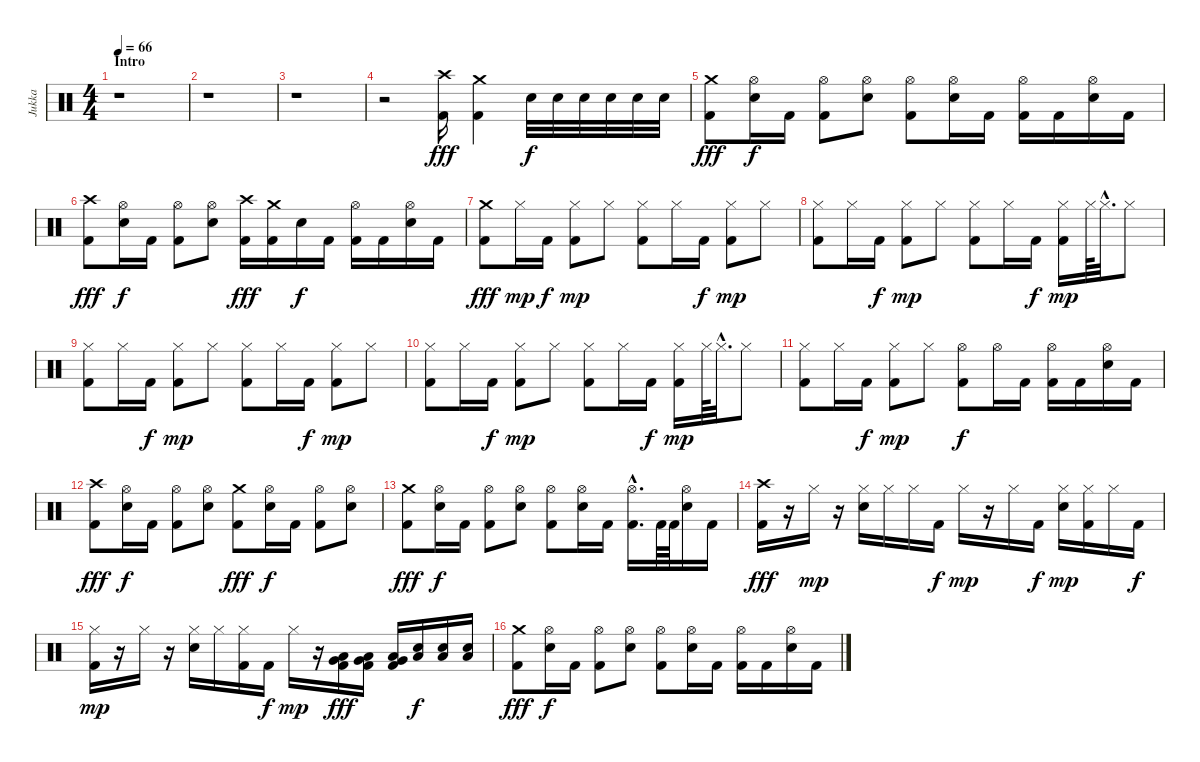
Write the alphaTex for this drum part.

\track ("Jukka" "Jukka") {instrument percussion}
\staff {score}
\articulation defaults
\ts (4 4)
\section ("" "Intro")
\tempo 66
\clef neutral
\ks c
r.1{dy fff} |
r.1 |
r.1 |
r.2 ("Kick (hit) 2" "Crash high (hit)").16 ("Kick (hit) 2" "Crash medium (hit)").4 "Electric Snare (hit)".32{dy f} "Electric Snare (hit)".32 "Electric Snare (hit)".32 "Electric Snare (hit)".32 "Electric Snare (hit)".32 "Electric Snare (hit)".32 |
("Kick (hit) 2" "Crash medium (hit)").8{dy fff} ("Electric Snare (hit)" "Hi-Hat (open)").16{dy f} "Kick (hit) 2".16 ("Kick (hit) 2" "Hi-Hat (open)").8 ("Electric Snare (hit)" "Hi-Hat (open)").8 ("Kick (hit) 2" "Hi-Hat (open)").8 ("Electric Snare (hit)" "Hi-Hat (open)").16 "Kick (hit) 2".16 ("Kick (hit) 2" "Hi-Hat (open)").16 "Kick (hit) 2".16 ("Electric Snare (hit)" "Hi-Hat (open)").16 "Kick (hit) 2".16 |
("Kick (hit) 2" "Crash high (hit)").8{dy fff} ("Electric Snare (hit)" "Hi-Hat (open)").16{dy f} "Kick (hit) 2".16 ("Kick (hit) 2" "Hi-Hat (open)").8 ("Electric Snare (hit)" "Hi-Hat (open)").8 ("Kick (hit) 2" "Crash high (hit)").16{dy fff} ("Kick (hit) 2" "Crash medium (hit)").16 "Electric Snare (hit)".16{dy f} "Kick (hit) 2".16 ("Kick (hit) 2" "Hi-Hat (open)").16 "Kick (hit) 2".16 ("Electric Snare (hit)" "Hi-Hat (open)").16 "Kick (hit) 2".16 |
("Kick (hit) 2" "Crash medium (hit)").8{dy fff} "Hi-Hat (closed)".16{dy mp} "Kick (hit) 2".16{dy f} ("Kick (hit) 2" "Hi-Hat (closed)").8{dy mp} "Hi-Hat (closed)".8 ("Kick (hit) 2" "Hi-Hat (closed)").8 "Hi-Hat (closed)".16 "Kick (hit) 2".16{dy f} ("Kick (hit) 2" "Hi-Hat (closed)").8{dy mp} "Hi-Hat (closed)".8 |
("Kick (hit) 2" "Hi-Hat (closed)").8 "Hi-Hat (closed)".16 "Kick (hit) 2".16{dy f} ("Kick (hit) 2" "Hi-Hat (closed)").8{dy mp} "Hi-Hat (closed)".8 ("Kick (hit) 2" "Hi-Hat (closed)").8 "Hi-Hat (closed)".16 "Kick (hit) 2".16{dy f} ("Kick (hit) 2" "Hi-Hat (closed)").16{dy mp} "Hi-Hat (closed)".64 "Hi-Hat (closed)"{hac}.32{d} "Hi-Hat (closed)".8 |
("Kick (hit) 2" "Hi-Hat (closed)").8 "Hi-Hat (closed)".16 "Kick (hit) 2".16{dy f} ("Kick (hit) 2" "Hi-Hat (closed)").8{dy mp} "Hi-Hat (closed)".8 ("Kick (hit) 2" "Hi-Hat (closed)").8 "Hi-Hat (closed)".16 "Kick (hit) 2".16{dy f} ("Kick (hit) 2" "Hi-Hat (closed)").8{dy mp} "Hi-Hat (closed)".8 |
("Kick (hit) 2" "Hi-Hat (closed)").8 "Hi-Hat (closed)".16 "Kick (hit) 2".16{dy f} ("Kick (hit) 2" "Hi-Hat (closed)").8{dy mp} "Hi-Hat (closed)".8 ("Kick (hit) 2" "Hi-Hat (closed)").8 "Hi-Hat (closed)".16 "Kick (hit) 2".16{dy f} ("Kick (hit) 2" "Hi-Hat (closed)").16{dy mp} "Hi-Hat (closed)".64 "Hi-Hat (closed)"{hac}.32{d} "Hi-Hat (closed)".8 |
("Kick (hit) 2" "Hi-Hat (closed)").8 "Hi-Hat (closed)".16 "Kick (hit) 2".16{dy f} ("Kick (hit) 2" "Hi-Hat (closed)").8{dy mp} "Hi-Hat (closed)".8 ("Kick (hit) 2" "Hi-Hat (open)").8{dy f} "Hi-Hat (open)".16 "Kick (hit) 2".16 ("Kick (hit) 2" "Hi-Hat (open)").16 "Kick (hit) 2".16 ("Electric Snare (hit)" "Hi-Hat (open)").16 "Kick (hit) 2".16 |
("Kick (hit) 2" "Crash high (hit)").8{dy fff} ("Electric Snare (hit)" "Hi-Hat (open)").16{dy f} "Kick (hit) 2".16 ("Kick (hit) 2" "Hi-Hat (open)").8 ("Electric Snare (hit)" "Hi-Hat (open)").8 ("Kick (hit) 2" "Crash medium (hit)").8{dy fff} ("Electric Snare (hit)" "Hi-Hat (open)").16{dy f} "Kick (hit) 2".16 ("Kick (hit) 2" "Hi-Hat (open)").8 ("Electric Snare (hit)" "Hi-Hat (open)").8 |
("Kick (hit) 2" "Crash medium (hit)").8{dy fff} ("Electric Snare (hit)" "Hi-Hat (open)").16{dy f} "Kick (hit) 2".16 ("Kick (hit) 2" "Hi-Hat (open)").8 ("Electric Snare (hit)" "Hi-Hat (open)").8 ("Kick (hit) 2" "Hi-Hat (open)").8 ("Electric Snare (hit)" "Hi-Hat (open)").16 "Kick (hit) 2".16 ("Kick (hit) 2"{hac} "Hi-Hat (open)"{hac}).16{d} "Kick (hit) 2".64 "Kick (hit) 2".64 ("Electric Snare (hit)" "Hi-Hat (open)").16 "Kick (hit) 2".16 |
("Kick (hit) 2" "Crash high (hit)").16{dy fff} r.16 "Hi-Hat (closed)".16{dy mp} r.16 ("Electric Snare (hit)" "Hi-Hat (closed)").16 "Hi-Hat (closed)".16 "Hi-Hat (closed)".16 "Kick (hit) 2".16{dy f} "Hi-Hat (closed)".16{dy mp} r.16 "Hi-Hat (closed)".16 "Kick (hit) 2".16{dy f} ("Electric Snare (hit)" "Hi-Hat (closed)").16{dy mp} ("Kick (hit) 2" "Hi-Hat (closed)").16 "Hi-Hat (closed)".16 "Kick (hit) 2".16{dy f} |
("Kick (hit) 2" "Hi-Hat (closed)").16{dy mp} r.16 "Hi-Hat (closed)".16 r.16 ("Electric Snare (hit)" "Hi-Hat (closed)").16 "Hi-Hat (closed)".16 ("Kick (hit) 2" "Hi-Hat (closed)").16 "Kick (hit) 2".16{dy f} "Hi-Hat (closed)".16{dy mp} r.16 ("Kick (hit) 2" "Very Low Tom (hit)" "Low Floor Tom (hit)").16{dy fff} ("Kick (hit) 2" "Very Low Tom (hit)" "Low Floor Tom (hit)").16 ("Kick (hit) 2" "Very Low Tom (hit)" "Low Floor Tom (hit)").16 ("Electric Snare (hit)" "Low Floor Tom (hit)").16{dy f} ("Electric Snare (hit)" "Low Floor Tom (hit)").16 ("Electric Snare (hit)" "Low Floor Tom (hit)").16 |
("Kick (hit) 2" "Crash medium (hit)").8{dy fff} ("Electric Snare (hit)" "Hi-Hat (open)").16{dy f} "Kick (hit) 2".16 ("Kick (hit) 2" "Hi-Hat (open)").8 ("Electric Snare (hit)" "Hi-Hat (open)").8 ("Kick (hit) 2" "Hi-Hat (open)").8 ("Electric Snare (hit)" "Hi-Hat (open)").16 "Kick (hit) 2".16 ("Kick (hit) 2" "Hi-Hat (open)").16 "Kick (hit) 2".16 ("Electric Snare (hit)" "Hi-Hat (open)").16 "Kick (hit) 2".16
